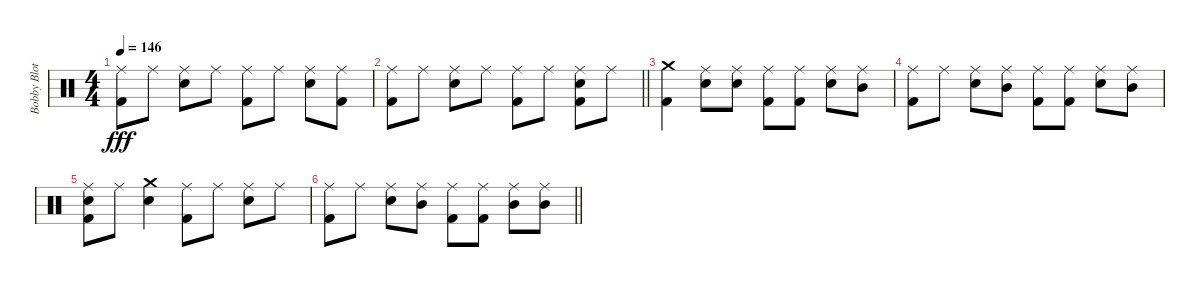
\track ("Bobby Blotzer - Drums" "Bobby Blot") {instrument percussion}
\staff {score}
\articulation defaults
\ts (4 4)
\tempo 146
\clef neutral
\ks c
("Ride (middle)" "Kick (hit) 2").8{dy fff} "Ride (middle)".8 ("Ride (middle)" "Snare (hit) 2").8 "Ride (middle)".8 ("Ride (middle)" "Kick (hit) 2").8 "Ride (middle)".8 ("Ride (middle)" "Snare (hit) 2").8 ("Ride (middle)" "Kick (hit) 2").8 |
\barLineRight lightlight
("Ride (middle)" "Kick (hit) 2").8 "Ride (middle)".8 ("Ride (middle)" "Snare (hit) 2").8 "Ride (middle)".8 ("Ride (middle)" "Kick (hit) 2").8 "Ride (middle)".8 ("Ride (middle)" "Snare (hit) 2" "Kick (hit) 2").8 "Ride (middle)".8 |
("Crash medium (hit)" "Kick (hit) 2").4 ("Ride (middle)" "Snare (hit) 2").8 ("Ride (middle)" "Snare (hit) 2").8 ("Ride (middle)" "Kick (hit) 2").8 ("Ride (middle)" "Kick (hit) 2").8 ("Ride (middle)" "Snare (hit) 2").8 ("Ride (middle)" "Mid Tom (hit)").8 |
("Ride (middle)" "Kick (hit) 2").8 "Ride (middle)".8 ("Ride (middle)" "Snare (hit) 2").8 ("Ride (middle)" "Mid Tom (hit)").8 ("Ride (middle)" "Kick (hit) 2").8 ("Ride (middle)" "Kick (hit) 2").8 ("Ride (middle)" "Snare (hit) 2").8 ("Ride (middle)" "Mid Tom (hit)").8 |
("Ride (middle)" "Snare (hit) 2" "Kick (hit) 2").8 "Ride (middle)".8 ("Crash medium (hit)" "Snare (hit) 2").4 ("Ride (middle)" "Kick (hit) 2").8 "Ride (middle)".8 ("Ride (middle)" "Snare (hit) 2").8 "Ride (middle)".8 |
\barLineRight lightlight
("Ride (middle)" "Kick (hit) 2").8 "Ride (middle)".8 ("Ride (middle)" "Snare (hit) 2").8 ("Ride (middle)" "Mid Tom (hit)").8 ("Ride (middle)" "Kick (hit) 2").8 ("Ride (middle)" "Kick (hit) 2").8 ("Ride (middle)" "Mid Tom (hit)").8 ("Ride (middle)" "Mid Tom (hit)").8
